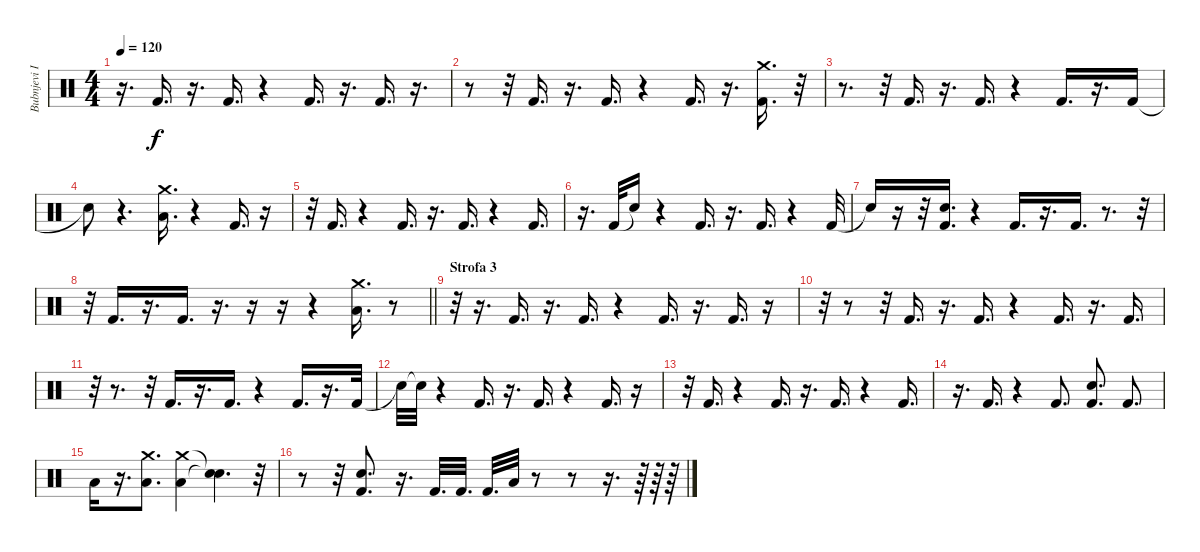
\track ("Bubnjevi Ipe Ivandic" "Bubnjevi I") {instrument percussion}
\staff {score}
\articulation defaults
\ts (4 4)
\tempo 120
\clef neutral
\ks c
r.16{d dy f} "Kick (hit) 2".16{d} r.16{d} "Kick (hit) 2".16{d} r.4 "Kick (hit) 2".16{d} r.16{d} "Kick (hit) 2".16{d} r.16{d} |
r.8 r.32 "Kick (hit) 2".16{d} r.16{d} "Kick (hit) 2".16{d} r.4 "Kick (hit) 2".16{d} r.16{d} ("Kick (hit) 2" "Crash medium (hit)").16{d} r.32 |
r.8{d} r.32 "Kick (hit) 2".16{d} r.16{d} "Kick (hit) 2".16{d} r.4 "Kick (hit) 2".16{d} r.16{d} "Kick (hit) 2".16 |
"Snare (hit)"{t}.8 r.4{d} ("Low Tom (hit)" "Crash medium (hit)").16{d} r.4 "Kick (hit) 2".16{d} r.16 |
r.32 "Kick (hit) 2".16{d} r.4 "Kick (hit) 2".16{d} r.16{d} "Kick (hit) 2".16{d} r.4 "Kick (hit) 2".16{d} |
r.16{d} "Kick (hit) 2".32 "Snare (hit)"{t}.16 r.4 "Kick (hit) 2".16{d} r.16{d} "Kick (hit) 2".16{d} r.4 "Kick (hit) 2".32 |
"Snare (hit)"{t}.16 r.16 r.32 ("Kick (hit) 2" "Snare (hit) 2").16{d} r.4 "Kick (hit) 2".16{d} r.16{d} "Kick (hit) 2".16{d} r.8{d} r.32 |
\barLineRight lightlight
r.32 "Kick (hit) 2".16{d} r.16{d} "Kick (hit) 2".16{d} r.16{d} r.16 r.16 r.4 ("Low Tom (hit)" "Crash medium (hit)").16{d} r.8 |
\section ("" "Strofa 3")
r.32 r.16{d} "Kick (hit) 2".16{d} r.16{d} "Kick (hit) 2".16{d} r.4 "Kick (hit) 2".16{d} r.16{d} "Kick (hit) 2".16{d} r.16 |
r.32 r.8 r.32 "Kick (hit) 2".16{d} r.16{d} "Kick (hit) 2".16{d} r.4 "Kick (hit) 2".16{d} r.16{d} "Kick (hit) 2".16{d} |
r.32 r.8{d} r.32 "Kick (hit) 2".16{d} r.16{d} "Kick (hit) 2".16{d} r.4 "Kick (hit) 2".16{d} r.16{d} "Kick (hit) 2".32 |
"Snare (hit)"{t}.32 "Snare (hit)"{t}.32 r.4 "Kick (hit) 2".16{d} r.16{d} "Kick (hit) 2".16{d} r.4 "Kick (hit) 2".16{d} r.16 |
r.32 "Kick (hit) 2".16{d} r.4 "Kick (hit) 2".16{d} r.16{d} "Kick (hit) 2".16{d} r.4 "Kick (hit) 2".16{d} |
r.16{d} "Kick (hit) 2".16{d} r.4 "Kick (hit) 2".8{d} ("Kick (hit) 2" "Snare (hit) 2").8{d} "Kick (hit) 2".8{d} |
"Low Tom (hit)".16 r.16{d} ("Low Tom (hit)" "Crash medium (hit)").8{d} ("Low Tom (hit)" "Crash medium (hit)").4 ("Snare (hit)"{t} "Snare (hit)"{t}).4{d} r.32 |
r.8 r.32 ("Kick (hit) 2" "Snare (hit) 2").8{d} r.16{d} "Kick (hit) 2".32{d} "Kick (hit) 2".32{d} "Kick (hit) 2".32{d} "Low Tom (hit)".32 r.8 r.8 r.16{d} r.64 r.64 r.64
